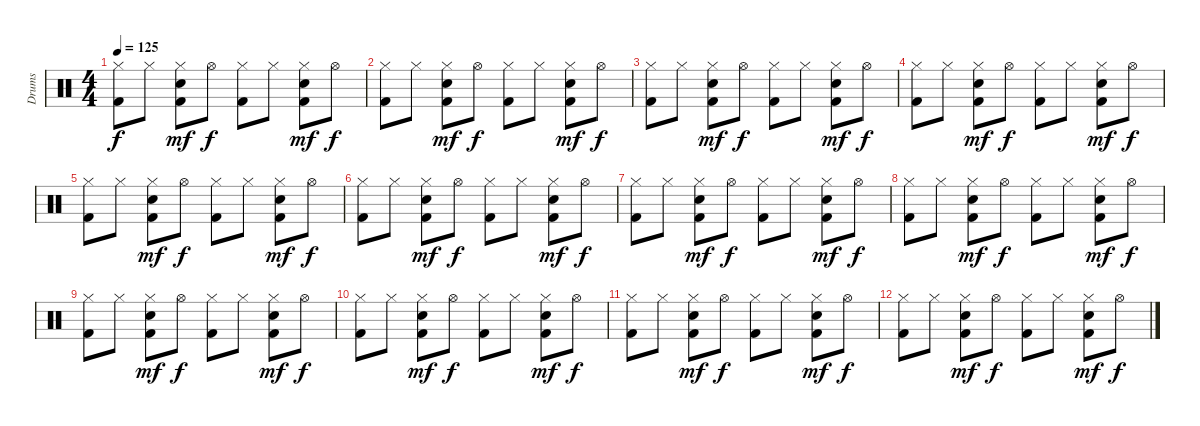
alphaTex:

\track ("Drums" "Drums") {instrument percussion}
\staff {score}
\articulation defaults
\ts (4 4)
\tempo 125
\clef neutral
\ks c
("Hi-Hat (closed)" "Kick (hit) 2").8{dy f} "Hi-Hat (closed)".8 ("Hi-Hat (closed)" "Snare (hit) 2" "Kick (hit) 2").8{dy mf} "Hi-Hat (open)".8{dy f} ("Hi-Hat (closed)" "Kick (hit) 2").8 "Hi-Hat (closed)".8 ("Hi-Hat (closed)" "Snare (hit) 2" "Kick (hit) 2").8{dy mf} "Hi-Hat (open)".8{dy f} |
("Hi-Hat (closed)" "Kick (hit) 2").8 "Hi-Hat (closed)".8 ("Hi-Hat (closed)" "Snare (hit) 2" "Kick (hit) 2").8{dy mf} "Hi-Hat (open)".8{dy f} ("Hi-Hat (closed)" "Kick (hit) 2").8 "Hi-Hat (closed)".8 ("Hi-Hat (closed)" "Snare (hit) 2" "Kick (hit) 2").8{dy mf} "Hi-Hat (open)".8{dy f} |
("Hi-Hat (closed)" "Kick (hit) 2").8 "Hi-Hat (closed)".8 ("Hi-Hat (closed)" "Snare (hit) 2" "Kick (hit) 2").8{dy mf} "Hi-Hat (open)".8{dy f} ("Hi-Hat (closed)" "Kick (hit) 2").8 "Hi-Hat (closed)".8 ("Hi-Hat (closed)" "Snare (hit) 2" "Kick (hit) 2").8{dy mf} "Hi-Hat (open)".8{dy f} |
("Hi-Hat (closed)" "Kick (hit) 2").8 "Hi-Hat (closed)".8 ("Hi-Hat (closed)" "Snare (hit) 2" "Kick (hit) 2").8{dy mf} "Hi-Hat (open)".8{dy f} ("Hi-Hat (closed)" "Kick (hit) 2").8 "Hi-Hat (closed)".8 ("Hi-Hat (closed)" "Snare (hit) 2" "Kick (hit) 2").8{dy mf} "Hi-Hat (open)".8{dy f} |
("Hi-Hat (closed)" "Kick (hit) 2").8 "Hi-Hat (closed)".8 ("Hi-Hat (closed)" "Snare (hit) 2" "Kick (hit) 2").8{dy mf} "Hi-Hat (open)".8{dy f} ("Hi-Hat (closed)" "Kick (hit) 2").8 "Hi-Hat (closed)".8 ("Hi-Hat (closed)" "Snare (hit) 2" "Kick (hit) 2").8{dy mf} "Hi-Hat (open)".8{dy f} |
("Hi-Hat (closed)" "Kick (hit) 2").8 "Hi-Hat (closed)".8 ("Hi-Hat (closed)" "Snare (hit) 2" "Kick (hit) 2").8{dy mf} "Hi-Hat (open)".8{dy f} ("Hi-Hat (closed)" "Kick (hit) 2").8 "Hi-Hat (closed)".8 ("Hi-Hat (closed)" "Snare (hit) 2" "Kick (hit) 2").8{dy mf} "Hi-Hat (open)".8{dy f} |
("Hi-Hat (closed)" "Kick (hit) 2").8 "Hi-Hat (closed)".8 ("Hi-Hat (closed)" "Snare (hit) 2" "Kick (hit) 2").8{dy mf} "Hi-Hat (open)".8{dy f} ("Hi-Hat (closed)" "Kick (hit) 2").8 "Hi-Hat (closed)".8 ("Hi-Hat (closed)" "Snare (hit) 2" "Kick (hit) 2").8{dy mf} "Hi-Hat (open)".8{dy f} |
("Hi-Hat (closed)" "Kick (hit) 2").8 "Hi-Hat (closed)".8 ("Hi-Hat (closed)" "Snare (hit) 2" "Kick (hit) 2").8{dy mf} "Hi-Hat (open)".8{dy f} ("Hi-Hat (closed)" "Kick (hit) 2").8 "Hi-Hat (closed)".8 ("Hi-Hat (closed)" "Snare (hit) 2" "Kick (hit) 2").8{dy mf} "Hi-Hat (open)".8{dy f} |
("Hi-Hat (closed)" "Kick (hit) 2").8 "Hi-Hat (closed)".8 ("Hi-Hat (closed)" "Snare (hit) 2" "Kick (hit) 2").8{dy mf} "Hi-Hat (open)".8{dy f} ("Hi-Hat (closed)" "Kick (hit) 2").8 "Hi-Hat (closed)".8 ("Hi-Hat (closed)" "Snare (hit) 2" "Kick (hit) 2").8{dy mf} "Hi-Hat (open)".8{dy f} |
("Hi-Hat (closed)" "Kick (hit) 2").8 "Hi-Hat (closed)".8 ("Hi-Hat (closed)" "Snare (hit) 2" "Kick (hit) 2").8{dy mf} "Hi-Hat (open)".8{dy f} ("Hi-Hat (closed)" "Kick (hit) 2").8 "Hi-Hat (closed)".8 ("Hi-Hat (closed)" "Snare (hit) 2" "Kick (hit) 2").8{dy mf} "Hi-Hat (open)".8{dy f} |
("Hi-Hat (closed)" "Kick (hit) 2").8 "Hi-Hat (closed)".8 ("Hi-Hat (closed)" "Snare (hit) 2" "Kick (hit) 2").8{dy mf} "Hi-Hat (open)".8{dy f} ("Hi-Hat (closed)" "Kick (hit) 2").8 "Hi-Hat (closed)".8 ("Hi-Hat (closed)" "Snare (hit) 2" "Kick (hit) 2").8{dy mf} "Hi-Hat (open)".8{dy f} |
("Hi-Hat (closed)" "Kick (hit) 2").8 "Hi-Hat (closed)".8 ("Hi-Hat (closed)" "Snare (hit) 2" "Kick (hit) 2").8{dy mf} "Hi-Hat (open)".8{dy f} ("Hi-Hat (closed)" "Kick (hit) 2").8 "Hi-Hat (closed)".8 ("Hi-Hat (closed)" "Snare (hit) 2" "Kick (hit) 2").8{dy mf} "Hi-Hat (open)".8{dy f}
